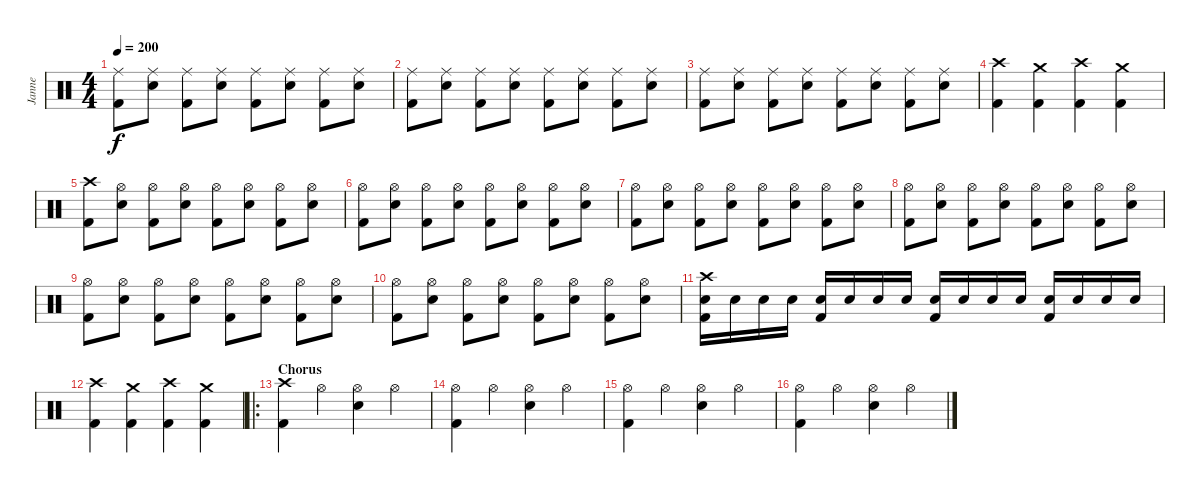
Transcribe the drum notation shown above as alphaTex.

\track ("Janne" "Janne") {instrument percussion}
\staff {score}
\articulation defaults
\ts (4 4)
\tempo 200
\clef neutral
\ks c
("Ride (middle)" "Kick (hit) 2").8{dy f} ("Ride (middle)" "Electric Snare (hit)").8 ("Ride (middle)" "Kick (hit) 2").8 ("Ride (middle)" "Electric Snare (hit)").8 ("Ride (middle)" "Kick (hit) 2").8 ("Ride (middle)" "Electric Snare (hit)").8 ("Ride (middle)" "Kick (hit) 2").8 ("Ride (middle)" "Electric Snare (hit)").8 |
("Ride (middle)" "Kick (hit) 2").8 ("Ride (middle)" "Electric Snare (hit)").8 ("Ride (middle)" "Kick (hit) 2").8 ("Ride (middle)" "Electric Snare (hit)").8 ("Ride (middle)" "Kick (hit) 2").8 ("Ride (middle)" "Electric Snare (hit)").8 ("Ride (middle)" "Kick (hit) 2").8 ("Ride (middle)" "Electric Snare (hit)").8 |
("Ride (middle)" "Kick (hit) 2").8 ("Ride (middle)" "Electric Snare (hit)").8 ("Ride (middle)" "Kick (hit) 2").8 ("Ride (middle)" "Electric Snare (hit)").8 ("Ride (middle)" "Kick (hit) 2").8 ("Ride (middle)" "Electric Snare (hit)").8 ("Ride (middle)" "Kick (hit) 2").8 ("Ride (middle)" "Electric Snare (hit)").8 |
("Crash high (hit)" "Kick (hit) 2").4 ("Crash medium (hit)" "Kick (hit) 2").4 ("Crash high (hit)" "Kick (hit) 2").4 ("Crash medium (hit)" "Kick (hit) 2").4 |
("Crash high (hit)" "Kick (hit) 2").8 ("Hi-Hat (open)" "Electric Snare (hit)").8 ("Hi-Hat (open)" "Kick (hit) 2").8 ("Hi-Hat (open)" "Electric Snare (hit)").8 ("Hi-Hat (open)" "Kick (hit) 2").8 ("Hi-Hat (open)" "Electric Snare (hit)").8 ("Hi-Hat (open)" "Kick (hit) 2").8 ("Hi-Hat (open)" "Electric Snare (hit)").8 |
("Hi-Hat (open)" "Kick (hit) 2").8 ("Hi-Hat (open)" "Electric Snare (hit)").8 ("Hi-Hat (open)" "Kick (hit) 2").8 ("Hi-Hat (open)" "Electric Snare (hit)").8 ("Hi-Hat (open)" "Kick (hit) 2").8 ("Hi-Hat (open)" "Electric Snare (hit)").8 ("Hi-Hat (open)" "Kick (hit) 2").8 ("Hi-Hat (open)" "Electric Snare (hit)").8 |
("Hi-Hat (open)" "Kick (hit) 2").8 ("Hi-Hat (open)" "Electric Snare (hit)").8 ("Hi-Hat (open)" "Kick (hit) 2").8 ("Hi-Hat (open)" "Electric Snare (hit)").8 ("Hi-Hat (open)" "Kick (hit) 2").8 ("Hi-Hat (open)" "Electric Snare (hit)").8 ("Hi-Hat (open)" "Kick (hit) 2").8 ("Hi-Hat (open)" "Electric Snare (hit)").8 |
("Hi-Hat (open)" "Kick (hit) 2").8 ("Hi-Hat (open)" "Electric Snare (hit)").8 ("Hi-Hat (open)" "Kick (hit) 2").8 ("Hi-Hat (open)" "Electric Snare (hit)").8 ("Hi-Hat (open)" "Kick (hit) 2").8 ("Hi-Hat (open)" "Electric Snare (hit)").8 ("Hi-Hat (open)" "Kick (hit) 2").8 ("Hi-Hat (open)" "Electric Snare (hit)").8 |
("Hi-Hat (open)" "Kick (hit) 2").8 ("Hi-Hat (open)" "Electric Snare (hit)").8 ("Hi-Hat (open)" "Kick (hit) 2").8 ("Hi-Hat (open)" "Electric Snare (hit)").8 ("Hi-Hat (open)" "Kick (hit) 2").8 ("Hi-Hat (open)" "Electric Snare (hit)").8 ("Hi-Hat (open)" "Kick (hit) 2").8 ("Hi-Hat (open)" "Electric Snare (hit)").8 |
("Hi-Hat (open)" "Kick (hit) 2").8 ("Hi-Hat (open)" "Electric Snare (hit)").8 ("Hi-Hat (open)" "Kick (hit) 2").8 ("Hi-Hat (open)" "Electric Snare (hit)").8 ("Hi-Hat (open)" "Kick (hit) 2").8 ("Hi-Hat (open)" "Electric Snare (hit)").8 ("Hi-Hat (open)" "Kick (hit) 2").8 ("Hi-Hat (open)" "Electric Snare (hit)").8 |
("Crash high (hit)" "Electric Snare (hit)" "Kick (hit) 2").16 "Electric Snare (hit)".16 "Electric Snare (hit)".16 "Electric Snare (hit)".16 ("Electric Snare (hit)" "Kick (hit) 2").16 "Electric Snare (hit)".16 "Electric Snare (hit)".16 "Electric Snare (hit)".16 ("Electric Snare (hit)" "Kick (hit) 2").16 "Electric Snare (hit)".16 "Electric Snare (hit)".16 "Electric Snare (hit)".16 ("Electric Snare (hit)" "Kick (hit) 2").16 "Electric Snare (hit)".16 "Electric Snare (hit)".16 "Electric Snare (hit)".16 |
("Crash high (hit)" "Kick (hit) 2").4 ("Crash medium (hit)" "Kick (hit) 2").4 ("Crash high (hit)" "Kick (hit) 2").4 ("Crash medium (hit)" "Kick (hit) 2").4 |
\ro
\section ("" "Chorus")
("Crash high (hit)" "Kick (hit) 2").4 "Hi-Hat (open)".4 ("Hi-Hat (open)" "Electric Snare (hit)").4 "Hi-Hat (open)".4 |
("Hi-Hat (open)" "Kick (hit) 2").4 "Hi-Hat (open)".4 ("Hi-Hat (open)" "Electric Snare (hit)").4 "Hi-Hat (open)".4 |
("Hi-Hat (open)" "Kick (hit) 2").4 "Hi-Hat (open)".4 ("Hi-Hat (open)" "Electric Snare (hit)").4 "Hi-Hat (open)".4 |
("Hi-Hat (open)" "Kick (hit) 2").4 "Hi-Hat (open)".4 ("Hi-Hat (open)" "Electric Snare (hit)").4 "Hi-Hat (open)".4
